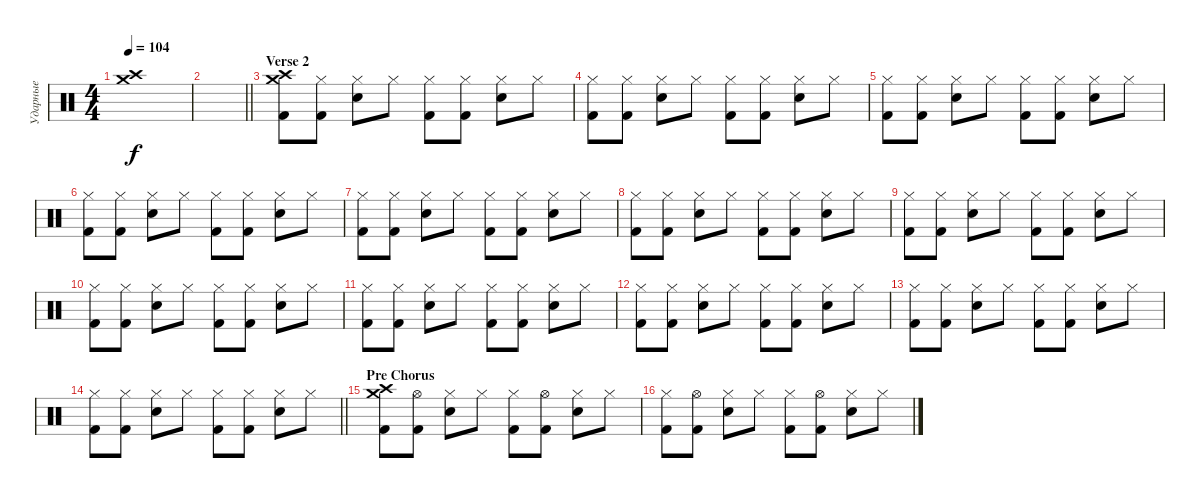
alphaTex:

\track ("Ударные" "Ударные") {instrument percussion}
\staff {score}
\articulation defaults
\ts (4 4)
\tempo 104
\clef neutral
\ks c
("Crash high (hit)" "Crash medium (hit)").1{dy f} |
\barLineRight lightlight
|
\section ("" "Verse 2")
("Crash high (hit)" "Crash medium (hit)" "Kick (hit) 2").8 ("Hi-Hat (closed)" "Kick (hit) 2").8 ("Hi-Hat (closed)" "Electric Snare (hit)").8 "Hi-Hat (closed)".8 ("Hi-Hat (closed)" "Kick (hit) 2").8 ("Hi-Hat (closed)" "Kick (hit) 2").8 ("Hi-Hat (closed)" "Electric Snare (hit)").8 "Hi-Hat (closed)".8 |
("Hi-Hat (closed)" "Kick (hit) 2").8 ("Hi-Hat (closed)" "Kick (hit) 2").8 ("Hi-Hat (closed)" "Electric Snare (hit)").8 "Hi-Hat (closed)".8 ("Hi-Hat (closed)" "Kick (hit) 2").8 ("Hi-Hat (closed)" "Kick (hit) 2").8 ("Hi-Hat (closed)" "Electric Snare (hit)").8 "Hi-Hat (closed)".8 |
("Hi-Hat (closed)" "Kick (hit) 2").8 ("Hi-Hat (closed)" "Kick (hit) 2").8 ("Hi-Hat (closed)" "Electric Snare (hit)").8 "Hi-Hat (closed)".8 ("Hi-Hat (closed)" "Kick (hit) 2").8 ("Hi-Hat (closed)" "Kick (hit) 2").8 ("Hi-Hat (closed)" "Electric Snare (hit)").8 "Hi-Hat (closed)".8 |
("Hi-Hat (closed)" "Kick (hit) 2").8 ("Hi-Hat (closed)" "Kick (hit) 2").8 ("Hi-Hat (closed)" "Electric Snare (hit)").8 "Hi-Hat (closed)".8 ("Hi-Hat (closed)" "Kick (hit) 2").8 ("Hi-Hat (closed)" "Kick (hit) 2").8 ("Hi-Hat (closed)" "Electric Snare (hit)").8 "Hi-Hat (closed)".8 |
("Hi-Hat (closed)" "Kick (hit) 2").8 ("Hi-Hat (closed)" "Kick (hit) 2").8 ("Hi-Hat (closed)" "Electric Snare (hit)").8 "Hi-Hat (closed)".8 ("Hi-Hat (closed)" "Kick (hit) 2").8 ("Hi-Hat (closed)" "Kick (hit) 2").8 ("Hi-Hat (closed)" "Electric Snare (hit)").8 "Hi-Hat (closed)".8 |
("Hi-Hat (closed)" "Kick (hit) 2").8 ("Hi-Hat (closed)" "Kick (hit) 2").8 ("Hi-Hat (closed)" "Electric Snare (hit)").8 "Hi-Hat (closed)".8 ("Hi-Hat (closed)" "Kick (hit) 2").8 ("Hi-Hat (closed)" "Kick (hit) 2").8 ("Hi-Hat (closed)" "Electric Snare (hit)").8 "Hi-Hat (closed)".8 |
("Hi-Hat (closed)" "Kick (hit) 2").8 ("Hi-Hat (closed)" "Kick (hit) 2").8 ("Hi-Hat (closed)" "Electric Snare (hit)").8 "Hi-Hat (closed)".8 ("Hi-Hat (closed)" "Kick (hit) 2").8 ("Hi-Hat (closed)" "Kick (hit) 2").8 ("Hi-Hat (closed)" "Electric Snare (hit)").8 "Hi-Hat (closed)".8 |
("Hi-Hat (closed)" "Kick (hit) 2").8 ("Hi-Hat (closed)" "Kick (hit) 2").8 ("Hi-Hat (closed)" "Electric Snare (hit)").8 "Hi-Hat (closed)".8 ("Hi-Hat (closed)" "Kick (hit) 2").8 ("Hi-Hat (closed)" "Kick (hit) 2").8 ("Hi-Hat (closed)" "Electric Snare (hit)").8 "Hi-Hat (closed)".8 |
("Hi-Hat (closed)" "Kick (hit) 2").8 ("Hi-Hat (closed)" "Kick (hit) 2").8 ("Hi-Hat (closed)" "Electric Snare (hit)").8 "Hi-Hat (closed)".8 ("Hi-Hat (closed)" "Kick (hit) 2").8 ("Hi-Hat (closed)" "Kick (hit) 2").8 ("Hi-Hat (closed)" "Electric Snare (hit)").8 "Hi-Hat (closed)".8 |
("Hi-Hat (closed)" "Kick (hit) 2").8 ("Hi-Hat (closed)" "Kick (hit) 2").8 ("Hi-Hat (closed)" "Electric Snare (hit)").8 "Hi-Hat (closed)".8 ("Hi-Hat (closed)" "Kick (hit) 2").8 ("Hi-Hat (closed)" "Kick (hit) 2").8 ("Hi-Hat (closed)" "Electric Snare (hit)").8 "Hi-Hat (closed)".8 |
("Hi-Hat (closed)" "Kick (hit) 2").8 ("Hi-Hat (closed)" "Kick (hit) 2").8 ("Hi-Hat (closed)" "Electric Snare (hit)").8 "Hi-Hat (closed)".8 ("Hi-Hat (closed)" "Kick (hit) 2").8 ("Hi-Hat (closed)" "Kick (hit) 2").8 ("Hi-Hat (closed)" "Electric Snare (hit)").8 "Hi-Hat (closed)".8 |
\barLineRight lightlight
("Hi-Hat (closed)" "Kick (hit) 2").8 ("Hi-Hat (closed)" "Kick (hit) 2").8 ("Hi-Hat (closed)" "Electric Snare (hit)").8 "Hi-Hat (closed)".8 ("Hi-Hat (closed)" "Kick (hit) 2").8 ("Hi-Hat (closed)" "Kick (hit) 2").8 ("Hi-Hat (closed)" "Electric Snare (hit)").8 "Hi-Hat (closed)".8 |
\section ("" "Pre Chorus")
("Crash high (hit)" "Crash medium (hit)" "Kick (hit) 2").8 ("Hi-Hat (open)" "Kick (hit) 2").8 ("Hi-Hat (closed)" "Electric Snare (hit)").8 "Hi-Hat (closed)".8 ("Hi-Hat (closed)" "Kick (hit) 2").8 ("Hi-Hat (open)" "Kick (hit) 2").8 ("Hi-Hat (closed)" "Electric Snare (hit)").8 "Hi-Hat (closed)".8 |
("Hi-Hat (closed)" "Kick (hit) 2").8 ("Hi-Hat (open)" "Kick (hit) 2").8 ("Hi-Hat (closed)" "Electric Snare (hit)").8 "Hi-Hat (closed)".8 ("Hi-Hat (closed)" "Kick (hit) 2").8 ("Hi-Hat (open)" "Kick (hit) 2").8 ("Hi-Hat (closed)" "Electric Snare (hit)").8 "Hi-Hat (closed)".8
